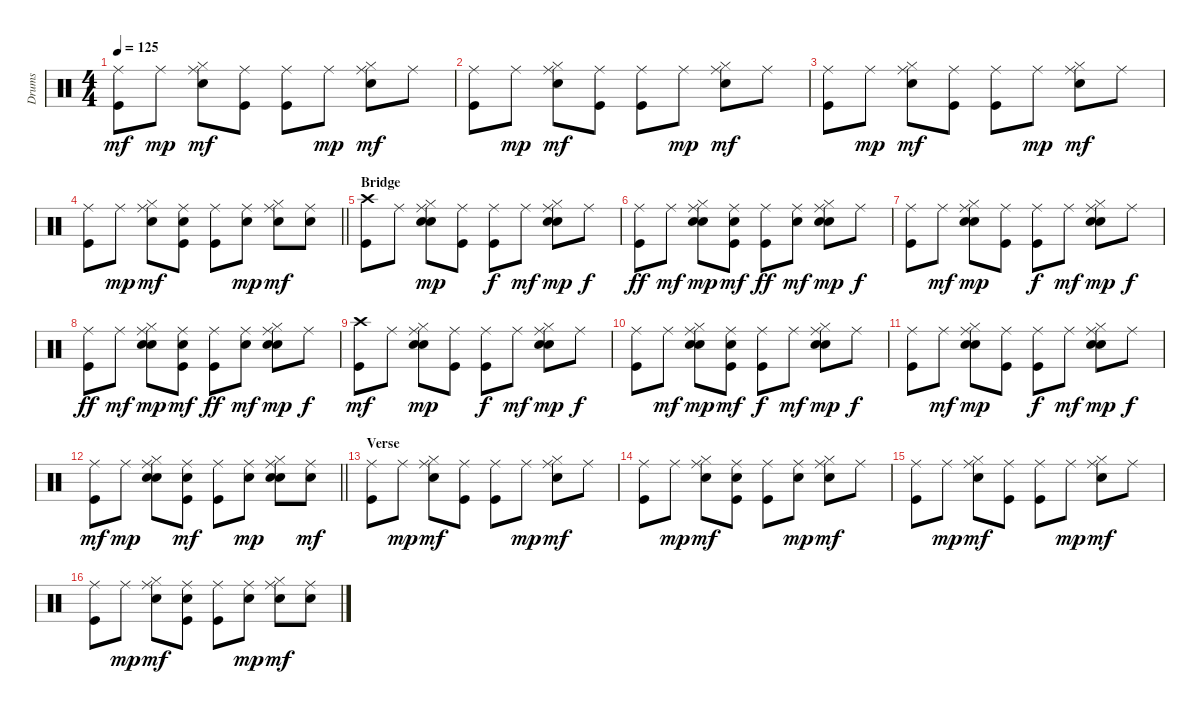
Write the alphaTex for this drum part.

\track ("Drums " "Drums ") {instrument percussion}
\staff {score}
\articulation defaults
\ts (4 4)
\tempo 125
\clef neutral
\ks c
("Kick (hit)" "Ride (middle)").8{dy mf} "Ride (middle)".8{dy mp} ("Snare (hit) 2" "Hi-Hat (closed)" "Ride (middle)").8{dy mf} ("Kick (hit)" "Ride (middle)").8 ("Kick (hit)" "Ride (middle)").8 "Ride (middle)".8{dy mp} ("Snare (hit) 2" "Hi-Hat (closed)" "Ride (middle)").8{dy mf} "Ride (middle)".8 |
("Kick (hit)" "Ride (middle)").8 "Ride (middle)".8{dy mp} ("Snare (hit) 2" "Hi-Hat (closed)" "Ride (middle)").8{dy mf} ("Kick (hit)" "Ride (middle)").8 ("Kick (hit)" "Ride (middle)").8 "Ride (middle)".8{dy mp} ("Snare (hit) 2" "Hi-Hat (closed)" "Ride (middle)").8{dy mf} "Ride (middle)".8 |
("Kick (hit)" "Ride (middle)").8 "Ride (middle)".8{dy mp} ("Snare (hit) 2" "Hi-Hat (closed)" "Ride (middle)").8{dy mf} ("Kick (hit)" "Ride (middle)").8 ("Kick (hit)" "Ride (middle)").8 "Ride (middle)".8{dy mp} ("Snare (hit) 2" "Hi-Hat (closed)" "Ride (middle)").8{dy mf} "Ride (middle)".8 |
\barLineRight lightlight
("Kick (hit)" "Ride (middle)").8 "Ride (middle)".8{dy mp} ("Snare (hit) 2" "Hi-Hat (closed)" "Ride (middle)").8{dy mf} ("Kick (hit)" "Snare (hit) 2" "Ride (middle)").8 ("Kick (hit)" "Ride (middle)").8 ("Snare (hit) 2" "Ride (middle)").8{dy mp} ("Snare (hit) 2" "Hi-Hat (closed)" "Ride (middle)").8{dy mf} ("Snare (hit) 2" "Ride (middle)").8 |
\section ("" "Bridge")
("Kick (hit)" "Crash high (hit)").8 "Ride (middle)".8 ("Snare (hit) 2" "Hi-Hat (closed)" "Ride (middle)" "Hand Clap (hit)").8{dy mp} ("Kick (hit)" "Ride (middle)").8 ("Kick (hit)" "Ride (middle)").8{dy f} "Ride (middle)".8{dy mf} ("Snare (hit) 2" "Hi-Hat (closed)" "Ride (middle)" "Hand Clap (hit)").8{dy mp} "Ride (middle)".8{dy f} |
("Kick (hit)" "Ride (middle)").8{dy ff} "Ride (middle)".8{dy mf} ("Snare (hit) 2" "Hi-Hat (closed)" "Ride (middle)" "Hand Clap (hit)").8{dy mp} ("Kick (hit)" "Snare (hit) 2" "Ride (middle)").8{dy mf} ("Kick (hit)" "Ride (middle)").8{dy ff} ("Snare (hit) 2" "Ride (middle)").8{dy mf} ("Snare (hit) 2" "Hi-Hat (closed)" "Ride (middle)" "Hand Clap (hit)").8{dy mp} "Ride (middle)".8{dy f} |
("Kick (hit)" "Ride (middle)").8 "Ride (middle)".8{dy mf} ("Snare (hit) 2" "Hi-Hat (closed)" "Ride (middle)" "Hand Clap (hit)").8{dy mp} ("Kick (hit)" "Ride (middle)").8 ("Kick (hit)" "Ride (middle)").8{dy f} "Ride (middle)".8{dy mf} ("Snare (hit) 2" "Hi-Hat (closed)" "Ride (middle)" "Hand Clap (hit)").8{dy mp} "Ride (middle)".8{dy f} |
("Kick (hit)" "Ride (middle)").8{dy ff} "Ride (middle)".8{dy mf} ("Snare (hit) 2" "Hi-Hat (closed)" "Ride (middle)" "Hand Clap (hit)").8{dy mp} ("Kick (hit)" "Snare (hit) 2" "Ride (middle)").8{dy mf} ("Kick (hit)" "Ride (middle)").8{dy ff} ("Snare (hit) 2" "Ride (middle)").8{dy mf} ("Snare (hit) 2" "Hi-Hat (closed)" "Ride (middle)" "Hand Clap (hit)").8{dy mp} "Ride (middle)".8{dy f} |
("Kick (hit)" "Crash high (hit)").8{dy mf} "Ride (middle)".8 ("Snare (hit) 2" "Hi-Hat (closed)" "Ride (middle)" "Hand Clap (hit)").8{dy mp} ("Kick (hit)" "Ride (middle)").8 ("Kick (hit)" "Ride (middle)").8{dy f} "Ride (middle)".8{dy mf} ("Snare (hit) 2" "Hi-Hat (closed)" "Ride (middle)" "Hand Clap (hit)").8{dy mp} "Ride (middle)".8{dy f} |
("Kick (hit)" "Ride (middle)").8 "Ride (middle)".8{dy mf} ("Snare (hit) 2" "Hi-Hat (closed)" "Ride (middle)" "Hand Clap (hit)").8{dy mp} ("Kick (hit)" "Snare (hit) 2" "Ride (middle)").8{dy mf} ("Kick (hit)" "Ride (middle)").8{dy f} "Ride (middle)".8{dy mf} ("Snare (hit) 2" "Hi-Hat (closed)" "Ride (middle)" "Hand Clap (hit)").8{dy mp} "Ride (middle)".8{dy f} |
("Kick (hit)" "Ride (middle)").8 "Ride (middle)".8{dy mf} ("Snare (hit) 2" "Hi-Hat (closed)" "Ride (middle)" "Hand Clap (hit)").8{dy mp} ("Kick (hit)" "Ride (middle)").8 ("Kick (hit)" "Ride (middle)").8{dy f} "Ride (middle)".8{dy mf} ("Snare (hit) 2" "Hi-Hat (closed)" "Ride (middle)" "Hand Clap (hit)").8{dy mp} "Ride (middle)".8{dy f} |
\barLineRight lightlight
("Kick (hit)" "Ride (middle)").8{dy mf} "Ride (middle)".8{dy mp} ("Snare (hit) 2" "Hi-Hat (closed)" "Ride (middle)" "Hand Clap (hit)").8 ("Kick (hit)" "Snare (hit) 2" "Ride (middle)").8{dy mf} ("Kick (hit)" "Ride (middle)").8 ("Snare (hit) 2" "Ride (middle)").8{dy mp} ("Snare (hit) 2" "Hi-Hat (closed)" "Ride (middle)" "Hand Clap (hit)").8 ("Snare (hit) 2" "Ride (middle)").8{dy mf} |
\section ("" "Verse")
("Kick (hit)" "Ride (middle)").8 "Ride (middle)".8{dy mp} ("Snare (hit) 2" "Hi-Hat (closed)" "Ride (middle)").8{dy mf} ("Kick (hit)" "Ride (middle)").8 ("Kick (hit)" "Ride (middle)").8 "Ride (middle)".8{dy mp} ("Snare (hit) 2" "Hi-Hat (closed)" "Ride (middle)").8{dy mf} "Ride (middle)".8 |
("Kick (hit)" "Ride (middle)").8 "Ride (middle)".8{dy mp} ("Snare (hit) 2" "Hi-Hat (closed)" "Ride (middle)").8{dy mf} ("Kick (hit)" "Snare (hit) 2" "Ride (middle)").8 ("Kick (hit)" "Ride (middle)").8 ("Snare (hit) 2" "Ride (middle)").8{dy mp} ("Snare (hit) 2" "Hi-Hat (closed)" "Ride (middle)").8{dy mf} "Ride (middle)".8 |
("Kick (hit)" "Ride (middle)").8 "Ride (middle)".8{dy mp} ("Snare (hit) 2" "Hi-Hat (closed)" "Ride (middle)").8{dy mf} ("Kick (hit)" "Ride (middle)").8 ("Kick (hit)" "Ride (middle)").8 "Ride (middle)".8{dy mp} ("Snare (hit) 2" "Hi-Hat (closed)" "Ride (middle)").8{dy mf} "Ride (middle)".8 |
("Kick (hit)" "Ride (middle)").8 "Ride (middle)".8{dy mp} ("Snare (hit) 2" "Hi-Hat (closed)" "Ride (middle)").8{dy mf} ("Kick (hit)" "Snare (hit) 2" "Ride (middle)").8 ("Kick (hit)" "Ride (middle)").8 ("Snare (hit) 2" "Ride (middle)").8{dy mp} ("Snare (hit) 2" "Hi-Hat (closed)" "Ride (middle)").8{dy mf} ("Snare (hit) 2" "Ride (middle)").8
